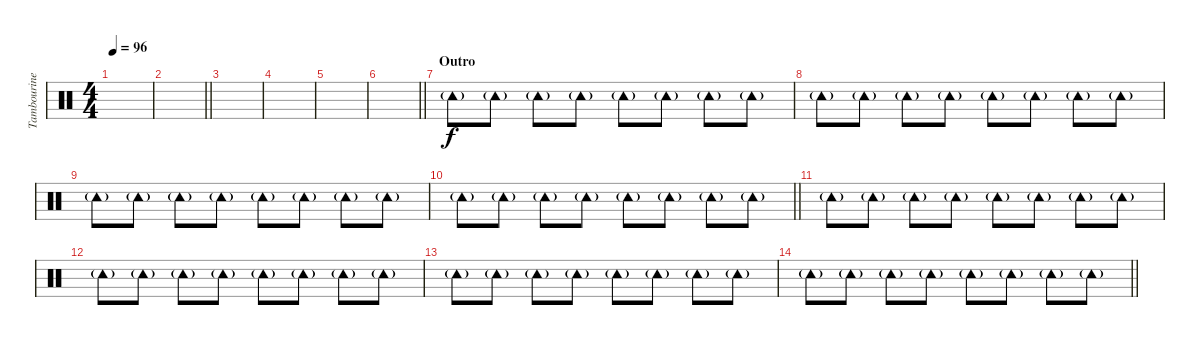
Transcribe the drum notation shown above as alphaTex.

\track ("Tambourine" "Tambourine") {instrument percussion}
\staff {score}
\articulation defaults
\ts (4 4)
\tempo 96
\clef neutral
\ks c
|
\barLineRight lightlight
|
|
|
|
\barLineRight lightlight
|
\section ("" "Outro")
"Tambourine (hit)"{g}.8{volume 6} "Tambourine (hit)"{g}.8 "Tambourine (hit)"{g}.8 "Tambourine (hit)"{g}.8 "Tambourine (hit)"{g}.8 "Tambourine (hit)"{g}.8 "Tambourine (hit)"{g}.8 "Tambourine (hit)"{g}.8 |
"Tambourine (hit)"{g}.8 "Tambourine (hit)"{g}.8 "Tambourine (hit)"{g}.8 "Tambourine (hit)"{g}.8 "Tambourine (hit)"{g}.8 "Tambourine (hit)"{g}.8 "Tambourine (hit)"{g}.8 "Tambourine (hit)"{g}.8 |
"Tambourine (hit)"{g}.8 "Tambourine (hit)"{g}.8 "Tambourine (hit)"{g}.8 "Tambourine (hit)"{g}.8 "Tambourine (hit)"{g}.8 "Tambourine (hit)"{g}.8 "Tambourine (hit)"{g}.8 "Tambourine (hit)"{g}.8 |
\barLineRight lightlight "Tambourine (hit)"{g}.8 "Tambourine (hit)"{g}.8 "Tambourine (hit)"{g}.8 "Tambourine (hit)"{g}.8 "Tambourine (hit)"{g}.8 "Tambourine (hit)"{g}.8 "Tambourine (hit)"{g}.8 "Tambourine (hit)"{g}.8
|
"Tambourine (hit)"{g}.8{volume 0} "Tambourine (hit)"{g}.8 "Tambourine (hit)"{g}.8 "Tambourine (hit)"{g}.8 "Tambourine (hit)"{g}.8 "Tambourine (hit)"{g}.8 "Tambourine (hit)"{g}.8 "Tambourine (hit)"{g}.8 |
"Tambourine (hit)"{g}.8 "Tambourine (hit)"{g}.8 "Tambourine (hit)"{g}.8 "Tambourine (hit)"{g}.8 "Tambourine (hit)"{g}.8 "Tambourine (hit)"{g}.8 "Tambourine (hit)"{g}.8 "Tambourine (hit)"{g}.8 |
"Tambourine (hit)"{g}.8 "Tambourine (hit)"{g}.8 "Tambourine (hit)"{g}.8 "Tambourine (hit)"{g}.8 "Tambourine (hit)"{g}.8 "Tambourine (hit)"{g}.8 "Tambourine (hit)"{g}.8 "Tambourine (hit)"{g}.8 |
\barLineRight lightlight "Tambourine (hit)"{g}.8 "Tambourine (hit)"{g}.8 "Tambourine (hit)"{g}.8 "Tambourine (hit)"{g}.8 "Tambourine (hit)"{g}.8 "Tambourine (hit)"{g}.8 "Tambourine (hit)"{g}.8 "Tambourine (hit)"{g}.8
